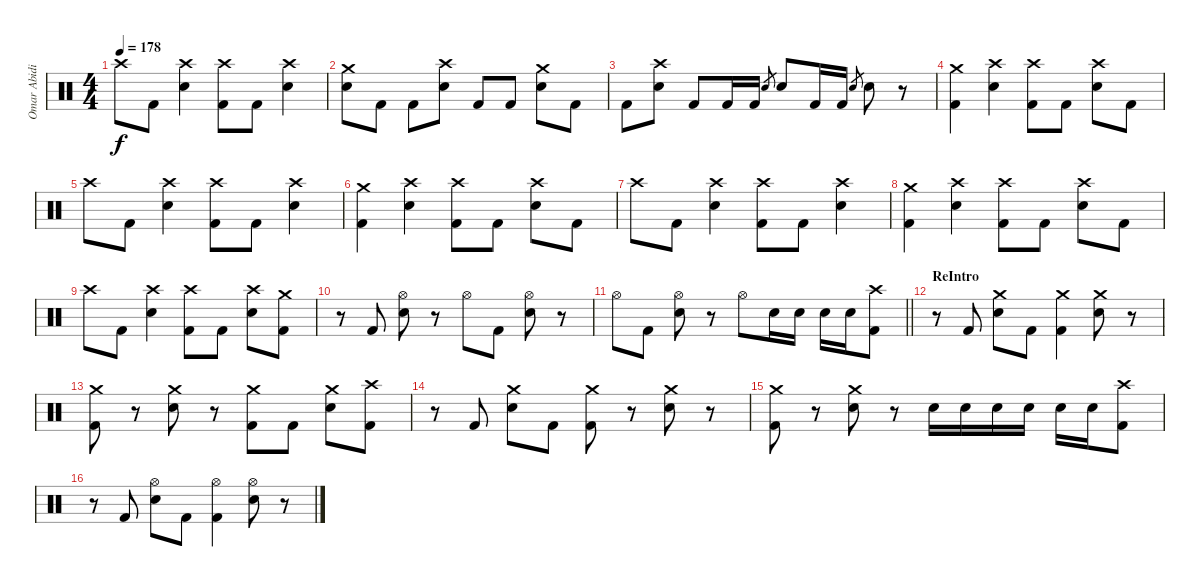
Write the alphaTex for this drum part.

\track ("Omar Abidi" "Omar Abidi") {instrument percussion}
\staff {score}
\articulation defaults
\ts (4 4)
\tempo 178
\clef neutral
\ks c "Crash high (hit)".8{dy f} "Kick (hit) 2".8
("Crash high (hit)" "Electric Snare (hit)").4 ("Crash high (hit)" "Kick (hit) 2").8 "Kick (hit) 2".8 ("Crash high (hit)" "Electric Snare (hit)").4 |
("Crash medium (hit)" "Electric Snare (hit)").8 "Kick (hit) 2".8 "Kick (hit) 2".8 ("Crash high (hit)" "Electric Snare (hit)").8 "Kick (hit) 2".8 "Kick (hit) 2".8 ("Crash medium (hit)" "Electric Snare (hit)").8 "Kick (hit) 2".8 |
"Kick (hit) 2".8 ("Crash high (hit)" "Electric Snare (hit)").8 "Kick (hit) 2".8 "Kick (hit) 2".16 "Kick (hit) 2".16 "Electric Snare (hit)".8{gr} "Electric Snare (hit)".8 "Kick (hit) 2".16 "Kick (hit) 2".16 "Electric Snare (hit)".8{gr} "Electric Snare (hit)".8 r.8 |
("Crash medium (hit)" "Kick (hit) 2").4 ("Crash high (hit)" "Electric Snare (hit)").4 ("Crash high (hit)" "Kick (hit) 2").8 "Kick (hit) 2".8 ("Crash high (hit)" "Electric Snare (hit)").8 "Kick (hit) 2".8 |
"Crash high (hit)".8 "Kick (hit) 2".8 ("Crash high (hit)" "Electric Snare (hit)").4 ("Crash high (hit)" "Kick (hit) 2").8 "Kick (hit) 2".8 ("Crash high (hit)" "Electric Snare (hit)").4 |
("Crash medium (hit)" "Kick (hit) 2").4 ("Crash high (hit)" "Electric Snare (hit)").4 ("Crash high (hit)" "Kick (hit) 2").8 "Kick (hit) 2".8 ("Crash high (hit)" "Electric Snare (hit)").8 "Kick (hit) 2".8 |
"Crash high (hit)".8 "Kick (hit) 2".8 ("Crash high (hit)" "Electric Snare (hit)").4 ("Crash high (hit)" "Kick (hit) 2").8 "Kick (hit) 2".8 ("Crash high (hit)" "Electric Snare (hit)").4 |
("Crash medium (hit)" "Kick (hit) 2").4 ("Crash high (hit)" "Electric Snare (hit)").4 ("Crash high (hit)" "Kick (hit) 2").8 "Kick (hit) 2".8 ("Crash high (hit)" "Electric Snare (hit)").8 "Kick (hit) 2".8 |
"Crash high (hit)".8 "Kick (hit) 2".8 ("Crash high (hit)" "Electric Snare (hit)").4 ("Crash high (hit)" "Kick (hit) 2").8 "Kick (hit) 2".8 ("Crash high (hit)" "Electric Snare (hit)").8 ("Crash medium (hit)" "Kick (hit) 2").8 |
r.8 "Kick (hit) 2".8 ("Hi-Hat (open)" "Electric Snare (hit)").8 r.8 "Hi-Hat (open)".8 "Kick (hit) 2".8 ("Hi-Hat (open)" "Electric Snare (hit)").8 r.8 |
\barLineRight lightlight "Hi-Hat (open)".8 "Kick (hit) 2".8
("Hi-Hat (open)" "Electric Snare (hit)").8 r.8 "Hi-Hat (open)".8 "Electric Snare (hit)".16 "Electric Snare (hit)".16 "Electric Snare (hit)".16 "Electric Snare (hit)".16 ("Crash high (hit)" "Kick (hit) 2").8 |
\section ("" "ReIntro")
r.8 "Kick (hit) 2".8 ("Crash medium (hit)" "Electric Snare (hit)").8 "Kick (hit) 2".8 ("Crash medium (hit)" "Kick (hit) 2").4 ("Crash medium (hit)" "Electric Snare (hit)").8 r.8 |
("Crash medium (hit)" "Kick (hit) 2").8 r.8 ("Crash medium (hit)" "Electric Snare (hit)").8 r.8 ("Crash medium (hit)" "Kick (hit) 2").8 "Kick (hit) 2".8 ("Crash medium (hit)" "Electric Snare (hit)").8 ("Crash high (hit)" "Kick (hit) 2").8 |
r.8 "Kick (hit) 2".8 ("Crash medium (hit)" "Electric Snare (hit)").8 "Kick (hit) 2".8 ("Crash medium (hit)" "Kick (hit) 2").8 r.8 ("Crash medium (hit)" "Electric Snare (hit)").8 r.8 |
("Crash medium (hit)" "Kick (hit) 2").8 r.8 ("Crash medium (hit)" "Electric Snare (hit)").8 r.8 "Electric Snare (hit)".16 "Electric Snare (hit)".16 "Electric Snare (hit)".16 "Electric Snare (hit)".16 "Electric Snare (hit)".16 "Electric Snare (hit)".16 ("Crash high (hit)" "Kick (hit) 2").8 |
r.8 "Kick (hit) 2".8 ("Hi-Hat (open)" "Electric Snare (hit)").8 "Kick (hit) 2".8 ("Hi-Hat (open)" "Kick (hit) 2").4 ("Hi-Hat (open)" "Electric Snare (hit)").8 r.8
